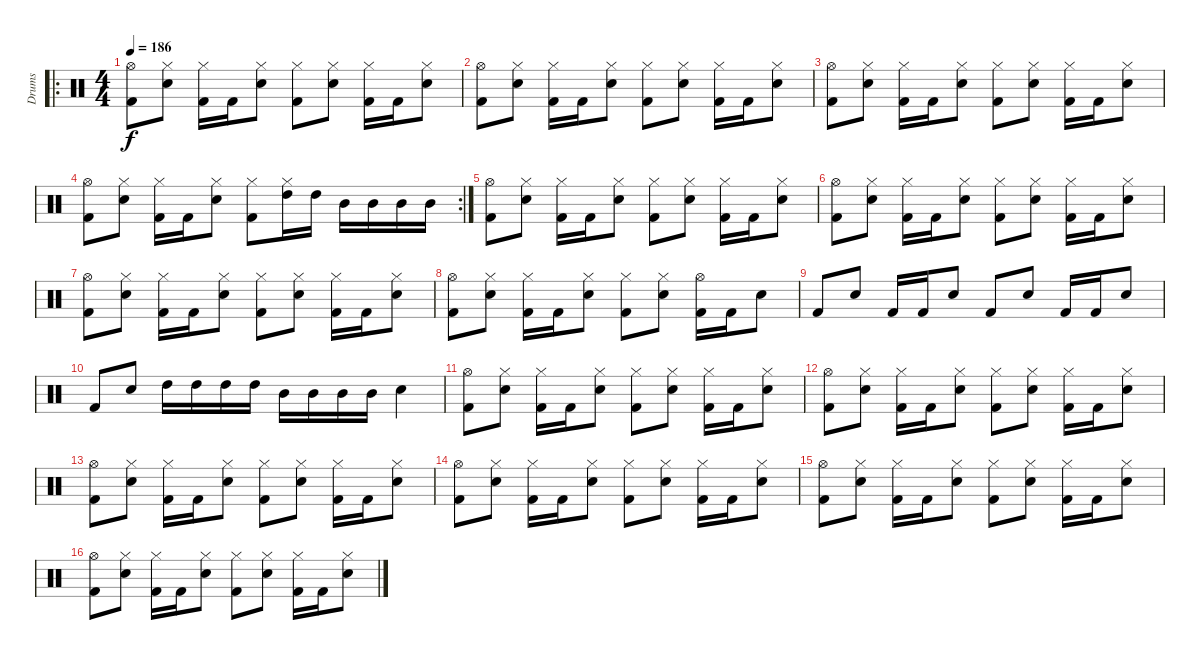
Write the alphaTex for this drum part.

\track ("Drums" "Drums") {instrument percussion}
\staff {score}
\articulation defaults
\ro
\ts (4 4)
\tempo 186
\clef neutral
\ks c
("Hi-Hat (open)" "Kick (hit) 2").8{dy f} ("Hi-Hat (closed)" "Electric Snare (hit)").8 ("Hi-Hat (closed)" "Kick (hit) 2").16 "Kick (hit) 2".16 ("Hi-Hat (closed)" "Electric Snare (hit)").8 ("Hi-Hat (closed)" "Kick (hit) 2").8 ("Hi-Hat (closed)" "Electric Snare (hit)").8 ("Hi-Hat (closed)" "Kick (hit) 2").16 "Kick (hit) 2".16 ("Hi-Hat (closed)" "Electric Snare (hit)").8 |
("Hi-Hat (open)" "Kick (hit) 2").8 ("Hi-Hat (closed)" "Electric Snare (hit)").8 ("Hi-Hat (closed)" "Kick (hit) 2").16 "Kick (hit) 2".16 ("Hi-Hat (closed)" "Electric Snare (hit)").8 ("Hi-Hat (closed)" "Kick (hit) 2").8 ("Hi-Hat (closed)" "Electric Snare (hit)").8 ("Hi-Hat (closed)" "Kick (hit) 2").16 "Kick (hit) 2".16 ("Hi-Hat (closed)" "Electric Snare (hit)").8 |
("Hi-Hat (open)" "Kick (hit) 2").8 ("Hi-Hat (closed)" "Electric Snare (hit)").8 ("Hi-Hat (closed)" "Kick (hit) 2").16 "Kick (hit) 2".16 ("Hi-Hat (closed)" "Electric Snare (hit)").8 ("Hi-Hat (closed)" "Kick (hit) 2").8 ("Hi-Hat (closed)" "Electric Snare (hit)").8 ("Hi-Hat (closed)" "Kick (hit) 2").16 "Kick (hit) 2".16 ("Hi-Hat (closed)" "Electric Snare (hit)").8 |
\rc 2
("Hi-Hat (open)" "Kick (hit) 2").8 ("Hi-Hat (closed)" "Electric Snare (hit)").8 ("Hi-Hat (closed)" "Kick (hit) 2").16 "Kick (hit) 2".16 ("Hi-Hat (closed)" "Electric Snare (hit)").8 ("Hi-Hat (closed)" "Kick (hit) 2").8 ("Hi-Hat (closed)" "High Tom (hit)").16 "High Tom (hit)".16 "Mid Tom (hit)".16 "Mid Tom (hit)".16 "Mid Tom (hit)".16 "Mid Tom (hit)".16 |
("Hi-Hat (open)" "Kick (hit) 2").8 ("Hi-Hat (closed)" "Electric Snare (hit)").8 ("Hi-Hat (closed)" "Kick (hit) 2").16 "Kick (hit) 2".16 ("Hi-Hat (closed)" "Electric Snare (hit)").8 ("Hi-Hat (closed)" "Kick (hit) 2").8 ("Hi-Hat (closed)" "Electric Snare (hit)").8 ("Hi-Hat (closed)" "Kick (hit) 2").16 "Kick (hit) 2".16 ("Hi-Hat (closed)" "Electric Snare (hit)").8 |
("Hi-Hat (open)" "Kick (hit) 2").8 ("Hi-Hat (closed)" "Electric Snare (hit)").8 ("Hi-Hat (closed)" "Kick (hit) 2").16 "Kick (hit) 2".16 ("Hi-Hat (closed)" "Electric Snare (hit)").8 ("Hi-Hat (closed)" "Kick (hit) 2").8 ("Hi-Hat (closed)" "Electric Snare (hit)").8 ("Hi-Hat (closed)" "Kick (hit) 2").16 "Kick (hit) 2".16 ("Hi-Hat (closed)" "Electric Snare (hit)").8 |
("Hi-Hat (open)" "Kick (hit) 2").8 ("Hi-Hat (closed)" "Electric Snare (hit)").8 ("Hi-Hat (closed)" "Kick (hit) 2").16 "Kick (hit) 2".16 ("Hi-Hat (closed)" "Electric Snare (hit)").8 ("Hi-Hat (closed)" "Kick (hit) 2").8 ("Hi-Hat (closed)" "Electric Snare (hit)").8 ("Hi-Hat (closed)" "Kick (hit) 2").16 "Kick (hit) 2".16 ("Hi-Hat (closed)" "Electric Snare (hit)").8 |
("Hi-Hat (open)" "Kick (hit) 2").8 ("Hi-Hat (closed)" "Electric Snare (hit)").8 ("Hi-Hat (closed)" "Kick (hit) 2").16 "Kick (hit) 2".16 ("Hi-Hat (closed)" "Electric Snare (hit)").8 ("Hi-Hat (closed)" "Kick (hit) 2").8 ("Hi-Hat (closed)" "Electric Snare (hit)").8 ("Hi-Hat (open)" "Kick (hit) 2").16 "Kick (hit) 2".16 "Electric Snare (hit)".8 |
"Kick (hit) 2".8 "Electric Snare (hit)".8 "Kick (hit) 2".16 "Kick (hit) 2".16 "Electric Snare (hit)".8 "Kick (hit) 2".8 "Electric Snare (hit)".8 "Kick (hit) 2".16 "Kick (hit) 2".16 "Electric Snare (hit)".8 |
"Kick (hit) 2".8 "Electric Snare (hit)".8 "High Tom (hit)".16 "High Tom (hit)".16 "High Tom (hit)".16 "High Tom (hit)".16 "Mid Tom (hit)".16 "Mid Tom (hit)".16 "Mid Tom (hit)".16 "Mid Tom (hit)".16 "Electric Snare (hit)".4 |
("Hi-Hat (open)" "Kick (hit) 2").8 ("Hi-Hat (closed)" "Electric Snare (hit)").8 ("Hi-Hat (closed)" "Kick (hit) 2").16 "Kick (hit) 2".16 ("Hi-Hat (closed)" "Electric Snare (hit)").8 ("Hi-Hat (closed)" "Kick (hit) 2").8 ("Hi-Hat (closed)" "Electric Snare (hit)").8 ("Hi-Hat (closed)" "Kick (hit) 2").16 "Kick (hit) 2".16 ("Hi-Hat (closed)" "Electric Snare (hit)").8 |
("Hi-Hat (open)" "Kick (hit) 2").8 ("Hi-Hat (closed)" "Electric Snare (hit)").8 ("Hi-Hat (closed)" "Kick (hit) 2").16 "Kick (hit) 2".16 ("Hi-Hat (closed)" "Electric Snare (hit)").8 ("Hi-Hat (closed)" "Kick (hit) 2").8 ("Hi-Hat (closed)" "Electric Snare (hit)").8 ("Hi-Hat (closed)" "Kick (hit) 2").16 "Kick (hit) 2".16 ("Hi-Hat (closed)" "Electric Snare (hit)").8 |
("Hi-Hat (open)" "Kick (hit) 2").8 ("Hi-Hat (closed)" "Electric Snare (hit)").8 ("Hi-Hat (closed)" "Kick (hit) 2").16 "Kick (hit) 2".16 ("Hi-Hat (closed)" "Electric Snare (hit)").8 ("Hi-Hat (closed)" "Kick (hit) 2").8 ("Hi-Hat (closed)" "Electric Snare (hit)").8 ("Hi-Hat (closed)" "Kick (hit) 2").16 "Kick (hit) 2".16 ("Hi-Hat (closed)" "Electric Snare (hit)").8 |
("Hi-Hat (open)" "Kick (hit) 2").8 ("Hi-Hat (closed)" "Electric Snare (hit)").8 ("Hi-Hat (closed)" "Kick (hit) 2").16 "Kick (hit) 2".16 ("Hi-Hat (closed)" "Electric Snare (hit)").8 ("Hi-Hat (closed)" "Kick (hit) 2").8 ("Hi-Hat (closed)" "Electric Snare (hit)").8 ("Hi-Hat (closed)" "Kick (hit) 2").16 "Kick (hit) 2".16 ("Hi-Hat (closed)" "Electric Snare (hit)").8 |
("Hi-Hat (open)" "Kick (hit) 2").8 ("Hi-Hat (closed)" "Electric Snare (hit)").8 ("Hi-Hat (closed)" "Kick (hit) 2").16 "Kick (hit) 2".16 ("Hi-Hat (closed)" "Electric Snare (hit)").8 ("Hi-Hat (closed)" "Kick (hit) 2").8 ("Hi-Hat (closed)" "Electric Snare (hit)").8 ("Hi-Hat (closed)" "Kick (hit) 2").16 "Kick (hit) 2".16 ("Hi-Hat (closed)" "Electric Snare (hit)").8 |
("Hi-Hat (open)" "Kick (hit) 2").8 ("Hi-Hat (closed)" "Electric Snare (hit)").8 ("Hi-Hat (closed)" "Kick (hit) 2").16 "Kick (hit) 2".16 ("Hi-Hat (closed)" "Electric Snare (hit)").8 ("Hi-Hat (closed)" "Kick (hit) 2").8 ("Hi-Hat (closed)" "Electric Snare (hit)").8 ("Hi-Hat (closed)" "Kick (hit) 2").16 "Kick (hit) 2".16 ("Hi-Hat (closed)" "Electric Snare (hit)").8
